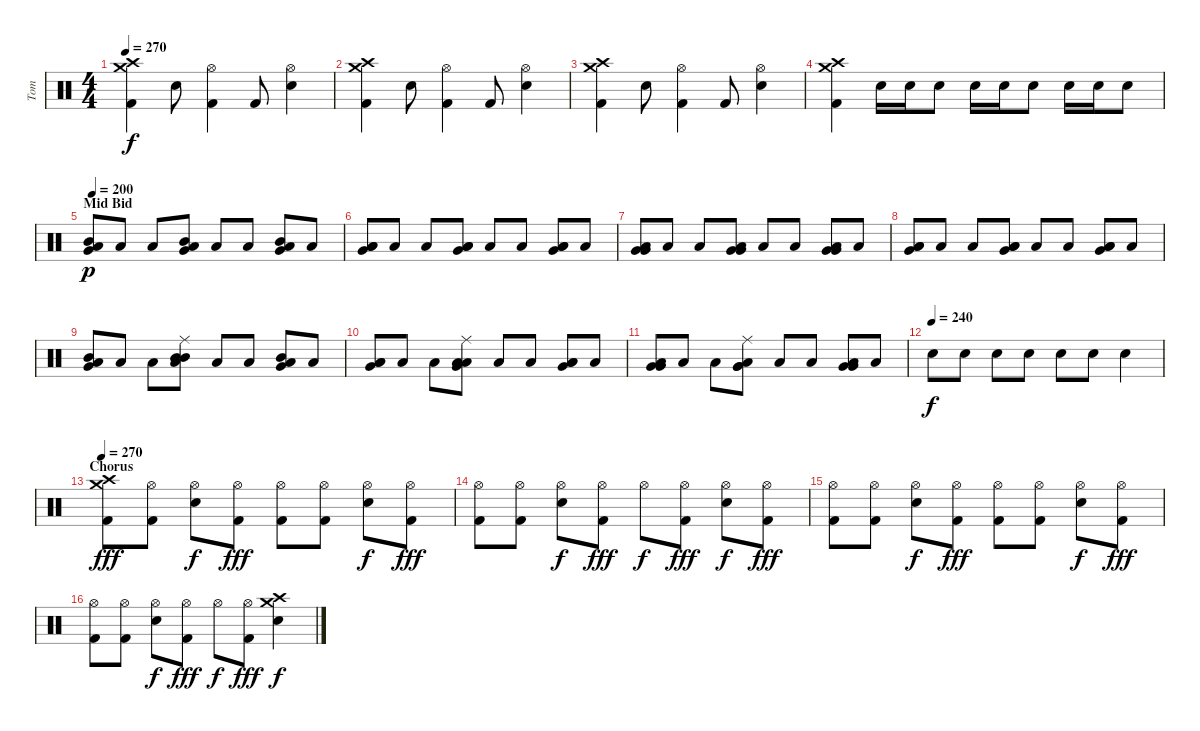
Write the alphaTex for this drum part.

\track ("Tom" "Tom") {instrument percussion}
\staff {score}
\articulation defaults
\ts (4 4)
\tempo 270
\clef neutral
\ks c
("Kick (hit) 2" "Crash medium (hit)" "Crash high (hit)").4{dy f} "Electric Snare (hit)".8 ("Kick (hit) 2" "Hi-Hat (open)").4 "Kick (hit) 2".8 ("Electric Snare (hit)" "Hi-Hat (open)").4 |
("Kick (hit) 2" "Crash medium (hit)" "Crash high (hit)").4 "Electric Snare (hit)".8 ("Kick (hit) 2" "Hi-Hat (open)").4 "Kick (hit) 2".8 ("Electric Snare (hit)" "Hi-Hat (open)").4 |
("Kick (hit) 2" "Crash medium (hit)" "Crash high (hit)").4 "Electric Snare (hit)".8 ("Kick (hit) 2" "Hi-Hat (open)").4 "Kick (hit) 2".8 ("Electric Snare (hit)" "Hi-Hat (open)").4 |
("Kick (hit) 2" "Crash medium (hit)" "Crash high (hit)").4 "Electric Snare (hit)".16 "Electric Snare (hit)".16 "Electric Snare (hit)".8 "Electric Snare (hit)".16 "Electric Snare (hit)".16 "Electric Snare (hit)".8 "Electric Snare (hit)".16 "Electric Snare (hit)".16 "Electric Snare (hit)".8 |
\section ("" "Mid Bid")
\tempo 200
("Mid Tom (hit)" "Very Low Tom (hit)" "Low Floor Tom (hit)").8{dy p} "Low Floor Tom (hit)".8 "Low Floor Tom (hit)".8 ("Mid Tom (hit)" "Very Low Tom (hit)" "Low Floor Tom (hit)").8 "Low Floor Tom (hit)".8 "Low Floor Tom (hit)".8 ("Mid Tom (hit)" "Very Low Tom (hit)" "Low Floor Tom (hit)").8 "Low Floor Tom (hit)".8 |
("Low Tom (hit)" "Very Low Tom (hit)" "Low Floor Tom (hit)").8 "Low Floor Tom (hit)".8 "Low Floor Tom (hit)".8 ("Low Tom (hit)" "Very Low Tom (hit)" "Low Floor Tom (hit)").8 "Low Floor Tom (hit)".8 "Low Floor Tom (hit)".8 ("Low Tom (hit)" "Very Low Tom (hit)" "Low Floor Tom (hit)").8 "Low Floor Tom (hit)".8 |
("Very Low Tom (hit)" "Very Low Tom (hit)" "Low Floor Tom (hit)").8 "Low Floor Tom (hit)".8 "Low Floor Tom (hit)".8 ("Very Low Tom (hit)" "Very Low Tom (hit)" "Low Floor Tom (hit)").8 "Low Floor Tom (hit)".8 "Low Floor Tom (hit)".8 ("Very Low Tom (hit)" "Very Low Tom (hit)" "Low Floor Tom (hit)").8 "Low Floor Tom (hit)".8 |
("Low Tom (hit)" "Very Low Tom (hit)" "Low Floor Tom (hit)").8 "Low Floor Tom (hit)".8 "Low Floor Tom (hit)".8 ("Low Tom (hit)" "Very Low Tom (hit)" "Low Floor Tom (hit)").8 "Low Floor Tom (hit)".8 "Low Floor Tom (hit)".8 ("Low Tom (hit)" "Very Low Tom (hit)" "Low Floor Tom (hit)").8 "Low Floor Tom (hit)".8 |
("Mid Tom (hit)" "Very Low Tom (hit)" "Low Floor Tom (hit)").8 "Low Floor Tom (hit)".8 "Low Floor Tom (hit)".8 ("Ride (middle)" "Mid Tom (hit)" "Mid Tom (hit)" "Low Floor Tom (hit)").8 "Low Floor Tom (hit)".8 "Low Floor Tom (hit)".8 ("Mid Tom (hit)" "Very Low Tom (hit)" "Low Floor Tom (hit)").8 "Low Floor Tom (hit)".8 |
("Low Tom (hit)" "Very Low Tom (hit)" "Low Floor Tom (hit)").8 "Low Floor Tom (hit)".8 "Low Floor Tom (hit)".8 ("Ride (middle)" "Very Low Tom (hit)" "Low Tom (hit)" "Low Floor Tom (hit)").8 "Low Floor Tom (hit)".8 "Low Floor Tom (hit)".8 ("Low Tom (hit)" "Very Low Tom (hit)" "Low Floor Tom (hit)").8 "Low Floor Tom (hit)".8 |
("Very Low Tom (hit)" "Very Low Tom (hit)" "Low Floor Tom (hit)").8 "Low Floor Tom (hit)".8 "Low Floor Tom (hit)".8 ("Ride (middle)" "Very Low Tom (hit)" "Very Low Tom (hit)" "Low Floor Tom (hit)").8 "Low Floor Tom (hit)".8 "Low Floor Tom (hit)".8 ("Very Low Tom (hit)" "Very Low Tom (hit)" "Low Floor Tom (hit)").8 "Low Floor Tom (hit)".8 |
\tempo (240)
"Electric Snare (hit)".8{dy f} "Electric Snare (hit)".8 "Electric Snare (hit)".8 "Electric Snare (hit)".8 "Electric Snare (hit)".8 "Electric Snare (hit)".8 "Electric Snare (hit)".4 |
\section ("" "Chorus")
\tempo 270
("Kick (hit) 2" "Crash medium (hit)" "Crash high (hit)").8{dy fff} ("Kick (hit) 2" "Hi-Hat (open)").8 ("Electric Snare (hit)" "Hi-Hat (open)").8{dy f} ("Kick (hit) 2" "Hi-Hat (open)").8{dy fff} ("Kick (hit) 2" "Hi-Hat (open)").8 ("Kick (hit) 2" "Hi-Hat (open)").8 ("Electric Snare (hit)" "Hi-Hat (open)").8{dy f} ("Kick (hit) 2" "Hi-Hat (open)").8{dy fff} |
("Kick (hit) 2" "Hi-Hat (open)").8 ("Kick (hit) 2" "Hi-Hat (open)").8 ("Electric Snare (hit)" "Hi-Hat (open)").8{dy f} ("Kick (hit) 2" "Hi-Hat (open)").8{dy fff} "Hi-Hat (open)".8{dy f} ("Kick (hit) 2" "Hi-Hat (open)").8{dy fff} ("Electric Snare (hit)" "Hi-Hat (open)").8{dy f} ("Kick (hit) 2" "Hi-Hat (open)").8{dy fff} |
("Kick (hit) 2" "Hi-Hat (open)").8 ("Kick (hit) 2" "Hi-Hat (open)").8 ("Electric Snare (hit)" "Hi-Hat (open)").8{dy f} ("Kick (hit) 2" "Hi-Hat (open)").8{dy fff} ("Kick (hit) 2" "Hi-Hat (open)").8 ("Kick (hit) 2" "Hi-Hat (open)").8 ("Electric Snare (hit)" "Hi-Hat (open)").8{dy f} ("Kick (hit) 2" "Hi-Hat (open)").8{dy fff} |
("Kick (hit) 2" "Hi-Hat (open)").8 ("Kick (hit) 2" "Hi-Hat (open)").8 ("Electric Snare (hit)" "Hi-Hat (open)").8{dy f} ("Kick (hit) 2" "Hi-Hat (open)").8{dy fff} "Hi-Hat (open)".8{dy f} ("Kick (hit) 2" "Hi-Hat (open)").8{dy fff} ("Electric Snare (hit)" "Crash medium (hit)" "Crash high (hit)").4{dy f}
